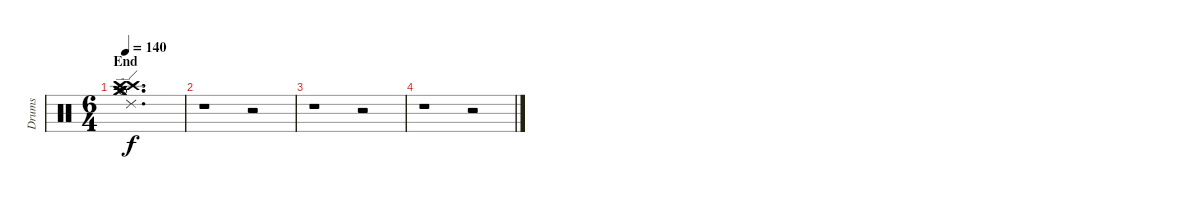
\track ("Drums" "Drums") {instrument percussion}
\staff {score}
\articulation defaults
\ts (6 4)
\section ("" "End")
\tempo 140
\clef neutral
\ks c
("Crash medium (hit)" "Crash medium (hit)" "Crash high (hit)" "Crash high (hit)" "Ride (edge) 2" "Hi-Hat (open)").1{d dy f} |
r.1 r.2 |
r.1 r.2 |
r.1 r.2
